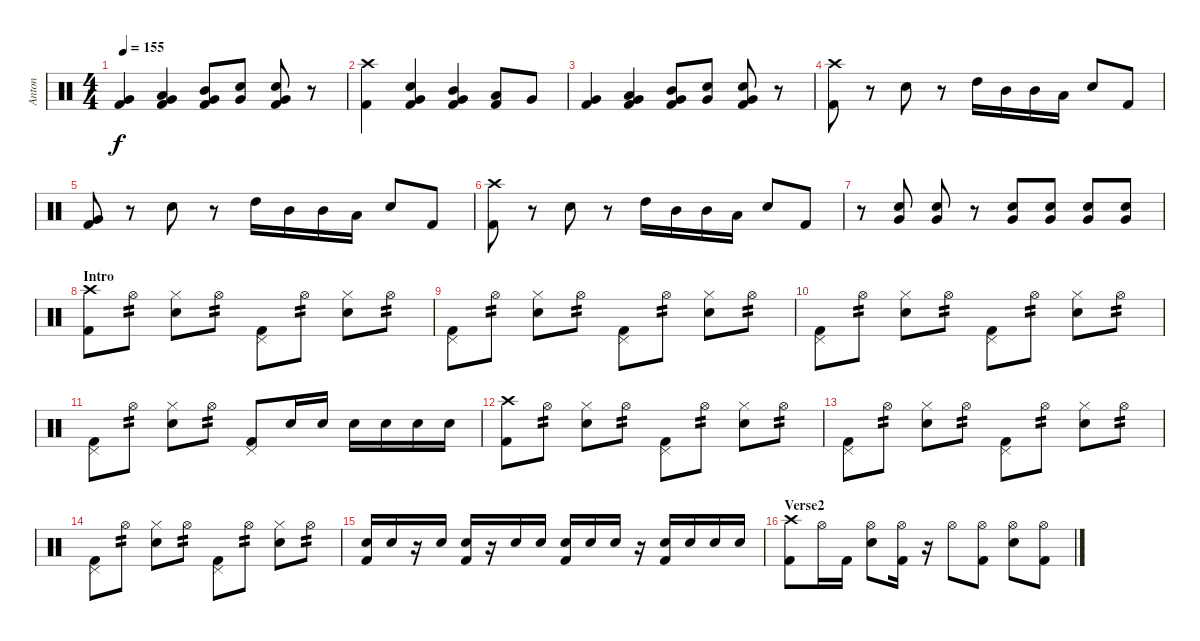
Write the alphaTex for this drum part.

\track ("Anton" "Anton") {instrument percussion}
\staff {score}
\articulation defaults
\ts (4 4)
\tempo 155
\clef neutral
\ks c
("Kick (hit) 2" "Very Low Tom (hit)").4{dy f} ("Kick (hit) 2" "Low Tom (hit)" "Very Low Tom (hit)").4 ("Kick (hit) 2" "Mid Tom (hit)" "Very Low Tom (hit)").8 ("Snare (hit) 2" "Very Low Tom (hit)").8 ("Kick (hit) 2" "Snare (hit) 2" "Very Low Tom (hit)").8 r.8 |
("Kick (hit) 2" "Crash high (hit)").4 ("Kick (hit) 2" "Snare (hit) 2" "Very Low Tom (hit)").4 ("Kick (hit) 2" "Mid Tom (hit)" "Very Low Tom (hit)").4 ("Kick (hit) 2" "Low Tom (hit)").8 "Very Low Tom (hit)".8 |
("Kick (hit) 2" "Very Low Tom (hit)").4 ("Kick (hit) 2" "Low Tom (hit)" "Very Low Tom (hit)").4 ("Kick (hit) 2" "Mid Tom (hit)" "Very Low Tom (hit)").8 ("Snare (hit) 2" "Very Low Tom (hit)").8 ("Kick (hit) 2" "Snare (hit) 2" "Very Low Tom (hit)").8 r.8 |
("Kick (hit) 2" "Crash high (hit)").8 r.8 "Snare (hit) 2".8 r.8 "High Tom (hit)".16 "Mid Tom (hit)".16 "Mid Tom (hit)".16 "Low Tom (hit)".16 "Snare (hit) 2".8 "Kick (hit) 2".8 |
("Kick (hit) 2" "Very Low Tom (hit)").8 r.8 "Snare (hit) 2".8 r.8 "High Tom (hit)".16 "Mid Tom (hit)".16 "Mid Tom (hit)".16 "Low Tom (hit)".16 "Snare (hit) 2".8 "Kick (hit) 2".8 |
("Kick (hit) 2" "Crash high (hit)").8 r.8 "Snare (hit) 2".8 r.8 "High Tom (hit)".16 "Mid Tom (hit)".16 "Mid Tom (hit)".16 "Low Tom (hit)".16 "Snare (hit) 2".8 "Kick (hit) 2".8 |
r.8 ("Snare (hit) 2" "Very Low Tom (hit)").8 ("Snare (hit) 2" "Very Low Tom (hit)").8 r.8 ("Snare (hit) 2" "Very Low Tom (hit)").8 ("Snare (hit) 2" "Very Low Tom (hit)").8 ("Snare (hit) 2" "Very Low Tom (hit)").8 ("Snare (hit) 2" "Very Low Tom (hit)").8 |
\section ("" "Intro")
("Kick (hit) 2" "Crash high (hit)").8 "Hi-Hat (open)".8{tp 2} ("Electric Snare (hit)" "Hi-Hat (closed)").8 "Hi-Hat (open)".8{tp 2} ("Kick (hit) 2" "Pedal Hi-Hat (hit)").8 "Hi-Hat (open)".8{tp 2} ("Electric Snare (hit)" "Hi-Hat (closed)").8 "Hi-Hat (open)".8{tp 2} |
("Kick (hit) 2" "Pedal Hi-Hat (hit)").8 "Hi-Hat (open)".8{tp 2} ("Electric Snare (hit)" "Hi-Hat (closed)").8 "Hi-Hat (open)".8{tp 2} ("Kick (hit) 2" "Pedal Hi-Hat (hit)").8 "Hi-Hat (open)".8{tp 2} ("Electric Snare (hit)" "Hi-Hat (closed)").8 "Hi-Hat (open)".8{tp 2} |
("Kick (hit) 2" "Pedal Hi-Hat (hit)").8 "Hi-Hat (open)".8{tp 2} ("Electric Snare (hit)" "Hi-Hat (closed)").8 "Hi-Hat (open)".8{tp 2} ("Kick (hit) 2" "Pedal Hi-Hat (hit)").8 "Hi-Hat (open)".8{tp 2} ("Electric Snare (hit)" "Hi-Hat (closed)").8 "Hi-Hat (open)".8{tp 2} |
("Kick (hit) 2" "Pedal Hi-Hat (hit)").8 "Hi-Hat (open)".8{tp 2} ("Electric Snare (hit)" "Hi-Hat (closed)").8 "Hi-Hat (open)".8{tp 2} ("Kick (hit) 2" "Pedal Hi-Hat (hit)").8 "Electric Snare (hit)".16 "Electric Snare (hit)".16 "Electric Snare (hit)".16 "Electric Snare (hit)".16 "Electric Snare (hit)".16 "Electric Snare (hit)".16 |
("Kick (hit) 2" "Crash high (hit)").8 "Hi-Hat (open)".8{tp 2} ("Electric Snare (hit)" "Hi-Hat (closed)").8 "Hi-Hat (open)".8{tp 2} ("Kick (hit) 2" "Pedal Hi-Hat (hit)").8 "Hi-Hat (open)".8{tp 2} ("Electric Snare (hit)" "Hi-Hat (closed)").8 "Hi-Hat (open)".8{tp 2} |
("Kick (hit) 2" "Pedal Hi-Hat (hit)").8 "Hi-Hat (open)".8{tp 2} ("Electric Snare (hit)" "Hi-Hat (closed)").8 "Hi-Hat (open)".8{tp 2} ("Kick (hit) 2" "Pedal Hi-Hat (hit)").8 "Hi-Hat (open)".8{tp 2} ("Electric Snare (hit)" "Hi-Hat (closed)").8 "Hi-Hat (open)".8{tp 2} |
("Kick (hit) 2" "Pedal Hi-Hat (hit)").8 "Hi-Hat (open)".8{tp 2} ("Electric Snare (hit)" "Hi-Hat (closed)").8 "Hi-Hat (open)".8{tp 2} ("Kick (hit) 2" "Pedal Hi-Hat (hit)").8 "Hi-Hat (open)".8{tp 2} ("Electric Snare (hit)" "Hi-Hat (closed)").8 "Hi-Hat (open)".8{tp 2} |
("Electric Snare (hit)" "Kick (hit) 2").16 "Electric Snare (hit)".16 r.16 "Electric Snare (hit)".16 ("Electric Snare (hit)" "Kick (hit) 2").16 r.16 "Electric Snare (hit)".16 "Electric Snare (hit)".16 ("Electric Snare (hit)" "Kick (hit) 2").16 "Electric Snare (hit)".16 "Electric Snare (hit)".16 r.16 ("Electric Snare (hit)" "Kick (hit) 2").16 "Electric Snare (hit)".16 "Electric Snare (hit)".16 "Electric Snare (hit)".16 |
\section ("" "Verse2")
("Kick (hit) 2" "Crash high (hit)").8 "Hi-Hat (open)".16 "Kick (hit) 2".16 ("Snare (hit) 2" "Hi-Hat (open)").8 ("Kick (hit) 2" "Hi-Hat (open)").16 r.16 "Hi-Hat (open)".8 ("Kick (hit) 2" "Hi-Hat (open)").8 ("Electric Snare (hit)" "Hi-Hat (open)").8 ("Kick (hit) 2" "Hi-Hat (open)").8
